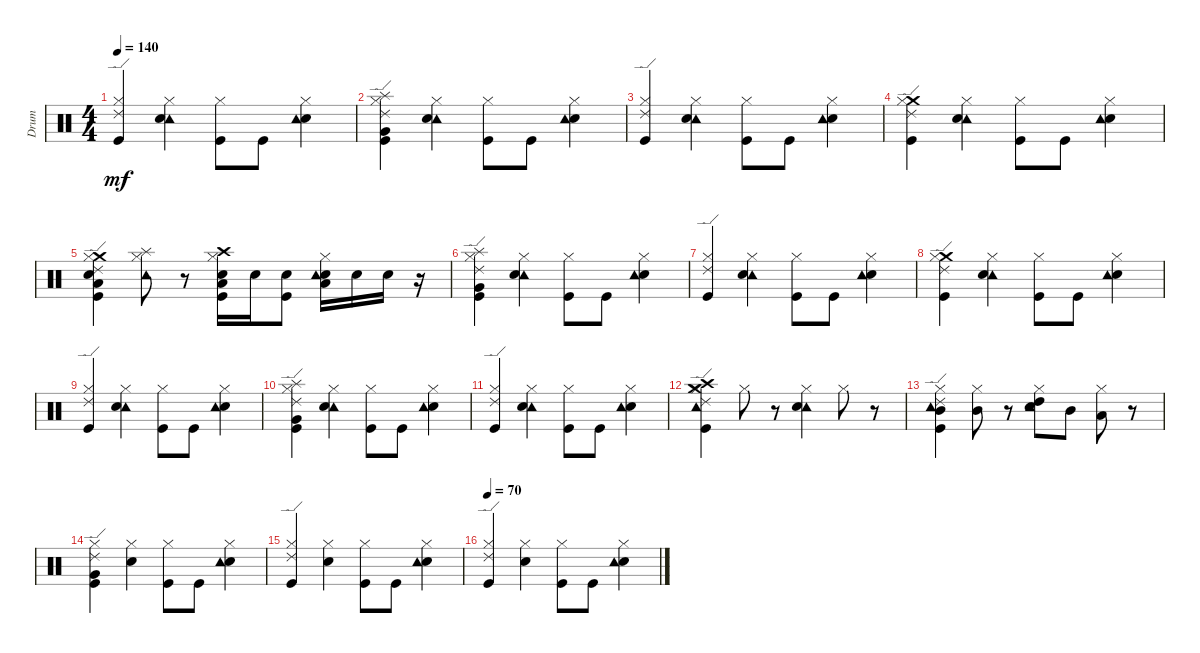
\track ("Drum" "Drum") {instrument percussion}
\staff {score}
\articulation defaults
\ts (4 4)
\tempo 140
\clef neutral
\ks c
("Ride (edge) 2" "Hi-Hat (closed)" "Kick (hit)").4{dy mf} ("Tambourine (hit)" "Hi-Hat (closed)" "Electric Snare (hit)").4 ("Hi-Hat (closed)" "Kick (hit)").8 "Kick (hit)".8 ("Electric Snare (hit)" "Tambourine (hit)" "Hi-Hat (closed)").4 |
("Splash (hit)" "Very Low Tom (hit)" "Ride (edge) 2" "Hi-Hat (closed)" "Kick (hit)").4 ("Tambourine (hit)" "Hi-Hat (closed)" "Electric Snare (hit)").4 ("Hi-Hat (closed)" "Kick (hit)").8 "Kick (hit)".8 ("Electric Snare (hit)" "Tambourine (hit)" "Hi-Hat (closed)").4 |
("Ride (edge) 2" "Hi-Hat (closed)" "Kick (hit)").4 ("Tambourine (hit)" "Hi-Hat (closed)" "Electric Snare (hit)").4 ("Hi-Hat (closed)" "Kick (hit)").8 "Kick (hit)".8 ("Electric Snare (hit)" "Tambourine (hit)" "Hi-Hat (closed)").4 |
("Crash medium (hit)" "Ride (edge) 2" "Hi-Hat (closed)" "Kick (hit)").4 ("Tambourine (hit)" "Hi-Hat (closed)" "Electric Snare (hit)").4 ("Hi-Hat (closed)" "Kick (hit)").8 "Kick (hit)".8 ("Electric Snare (hit)" "Tambourine (hit)" "Hi-Hat (closed)").4 |
("Crash medium (hit)" "Low Tom (hit)" "Electric Snare (hit)" "Ride (edge) 2" "Hi-Hat (closed)" "Kick (hit)").4 ("Splash (hit)" "Tambourine (hit)" "Hi-Hat (closed)").8 r.8 ("Crash high (hit)" "Low Tom (hit)" "Electric Snare (hit)" "Hi-Hat (closed)" "Kick (hit)").16 "Electric Snare (hit)".16 ("Electric Snare (hit)" "Kick (hit)").8 ("Low Tom (hit)" "Electric Snare (hit)" "Tambourine (hit)" "Hi-Hat (closed)").16 "Electric Snare (hit)".16 "Electric Snare (hit)".16 r.16 |
("Splash (hit)" "Very Low Tom (hit)" "Ride (edge) 2" "Hi-Hat (closed)" "Kick (hit)").4 ("Tambourine (hit)" "Hi-Hat (closed)" "Electric Snare (hit)").4 ("Hi-Hat (closed)" "Kick (hit)").8 "Kick (hit)".8 ("Electric Snare (hit)" "Tambourine (hit)" "Hi-Hat (closed)").4 |
("Ride (edge) 2" "Hi-Hat (closed)" "Kick (hit)").4 ("Tambourine (hit)" "Hi-Hat (closed)" "Electric Snare (hit)").4 ("Hi-Hat (closed)" "Kick (hit)").8 "Kick (hit)".8 ("Electric Snare (hit)" "Tambourine (hit)" "Hi-Hat (closed)").4 |
("Crash medium (hit)" "Ride (edge) 2" "Hi-Hat (closed)" "Kick (hit)").4 ("Tambourine (hit)" "Hi-Hat (closed)" "Electric Snare (hit)").4 ("Hi-Hat (closed)" "Kick (hit)").8 "Kick (hit)".8 ("Electric Snare (hit)" "Tambourine (hit)" "Hi-Hat (closed)").4 |
("Ride (edge) 2" "Hi-Hat (closed)" "Kick (hit)").4 ("Tambourine (hit)" "Hi-Hat (closed)" "Electric Snare (hit)").4 ("Hi-Hat (closed)" "Kick (hit)").8 "Kick (hit)".8 ("Electric Snare (hit)" "Tambourine (hit)" "Hi-Hat (closed)").4 |
("Splash (hit)" "Very Low Tom (hit)" "Ride (edge) 2" "Hi-Hat (closed)" "Kick (hit)").4 ("Tambourine (hit)" "Hi-Hat (closed)" "Electric Snare (hit)").4 ("Hi-Hat (closed)" "Kick (hit)").8 "Kick (hit)".8 ("Electric Snare (hit)" "Tambourine (hit)" "Hi-Hat (closed)").4 |
("Ride (edge) 2" "Hi-Hat (closed)" "Kick (hit)").4 ("Tambourine (hit)" "Hi-Hat (closed)" "Electric Snare (hit)").4 ("Hi-Hat (closed)" "Kick (hit)").8 "Kick (hit)".8 ("Electric Snare (hit)" "Tambourine (hit)" "Hi-Hat (closed)").4 |
("Crash high (hit)" "Crash medium (hit)" "Tambourine (hit)" "Ride (edge) 2" "Hi-Hat (closed)" "Kick (hit)").4 "Hi-Hat (closed)".8 r.8 ("Tambourine (hit)" "Electric Snare (hit)" "Hi-Hat (closed)").4 "Hi-Hat (closed)".8 r.8 |
("Tambourine (hit)" "Mid Tom (hit)" "Ride (edge) 2" "Hi-Hat (closed)" "Kick (hit)").4 ("Hi-Hat (closed)" "Mid Tom (hit)").8 r.8 ("Tambourine (hit)" "High Tom (hit)" "Electric Snare (hit)" "Hi-Hat (closed)").8 "Mid Tom (hit)".8 ("Hi-Hat (closed)" "Low Tom (hit)").8 r.8 |
("Very Low Tom (hit)" "Ride (edge) 2" "Hi-Hat (closed)" "Kick (hit)").4 ("Hi-Hat (closed)" "Electric Snare (hit)").4 ("Hi-Hat (closed)" "Kick (hit)").8 "Kick (hit)".8 ("Electric Snare (hit)" "Tambourine (hit)" "Hi-Hat (closed)").4 |
("Ride (edge) 2" "Hi-Hat (closed)" "Kick (hit)").4 ("Hi-Hat (closed)" "Electric Snare (hit)").4 ("Hi-Hat (closed)" "Kick (hit)").8 "Kick (hit)".8 ("Electric Snare (hit)" "Tambourine (hit)" "Hi-Hat (closed)").4 |
\tempo 70
("Ride (edge) 2" "Hi-Hat (closed)" "Kick (hit)").4 ("Hi-Hat (closed)" "Electric Snare (hit)").4 ("Hi-Hat (closed)" "Kick (hit)").8 "Kick (hit)".8 ("Electric Snare (hit)" "Tambourine (hit)" "Hi-Hat (closed)").4
